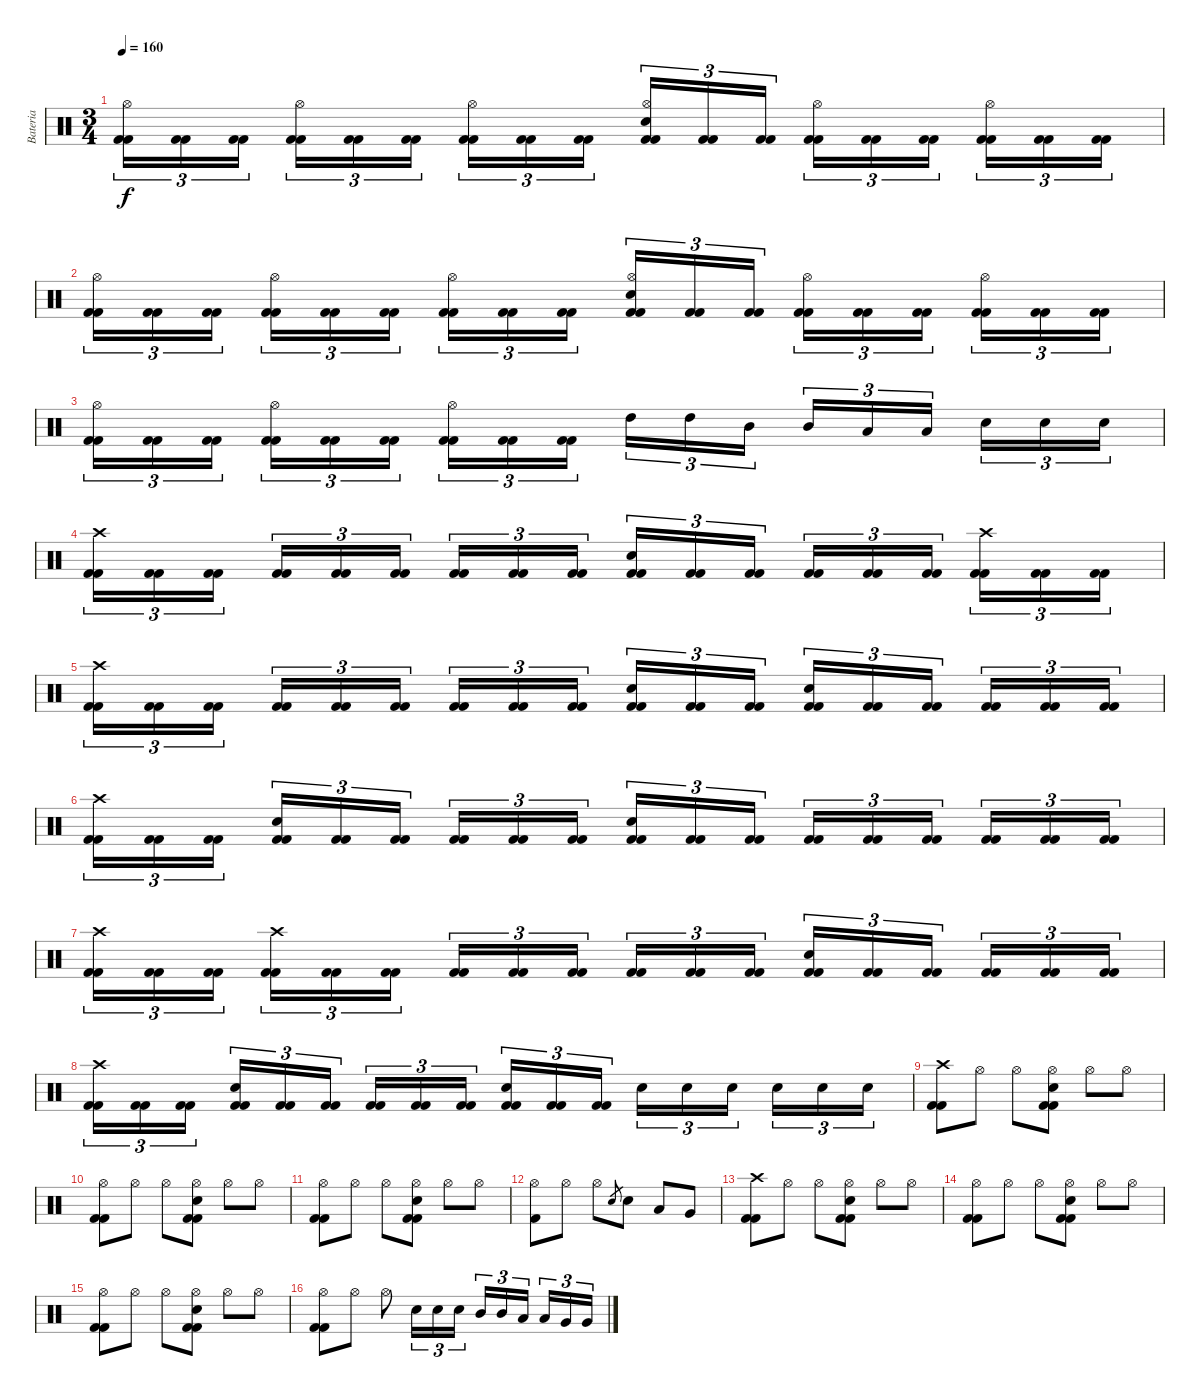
\track ("Bateria" "Bateria") {instrument percussion}
\staff {score}
\articulation defaults
\ts (3 4)
\tempo 160
\clef neutral
\ks c
("Kick (hit) 2" "Kick (hit) 2" "Hi-Hat (open)").16{tu (3 2) dy f} ("Kick (hit) 2" "Kick (hit) 2").16{tu (3 2)} ("Kick (hit) 2" "Kick (hit) 2").16{tu (3 2)} ("Kick (hit) 2" "Kick (hit) 2" "Hi-Hat (open)").16{tu (3 2)} ("Kick (hit) 2" "Kick (hit) 2").16{tu (3 2)} ("Kick (hit) 2" "Kick (hit) 2").16{tu (3 2)} ("Kick (hit) 2" "Kick (hit) 2" "Hi-Hat (open)").16{tu (3 2)} ("Kick (hit) 2" "Kick (hit) 2").16{tu (3 2)} ("Kick (hit) 2" "Kick (hit) 2").16{tu (3 2)} ("Kick (hit) 2" "Kick (hit) 2" "Snare (hit) 2" "Hi-Hat (open)").16{tu (3 2)} ("Kick (hit) 2" "Kick (hit) 2").16{tu (3 2)} ("Kick (hit) 2" "Kick (hit) 2").16{tu (3 2)} ("Kick (hit) 2" "Kick (hit) 2" "Hi-Hat (open)").16{tu (3 2)} ("Kick (hit) 2" "Kick (hit) 2").16{tu (3 2)} ("Kick (hit) 2" "Kick (hit) 2").16{tu (3 2)} ("Kick (hit) 2" "Kick (hit) 2" "Hi-Hat (open)").16{tu (3 2)} ("Kick (hit) 2" "Kick (hit) 2").16{tu (3 2)} ("Kick (hit) 2" "Kick (hit) 2").16{tu (3 2)} |
("Kick (hit) 2" "Kick (hit) 2" "Hi-Hat (open)").16{tu (3 2)} ("Kick (hit) 2" "Kick (hit) 2").16{tu (3 2)} ("Kick (hit) 2" "Kick (hit) 2").16{tu (3 2)} ("Kick (hit) 2" "Kick (hit) 2" "Hi-Hat (open)").16{tu (3 2)} ("Kick (hit) 2" "Kick (hit) 2").16{tu (3 2)} ("Kick (hit) 2" "Kick (hit) 2").16{tu (3 2)} ("Kick (hit) 2" "Kick (hit) 2" "Hi-Hat (open)").16{tu (3 2)} ("Kick (hit) 2" "Kick (hit) 2").16{tu (3 2)} ("Kick (hit) 2" "Kick (hit) 2").16{tu (3 2)} ("Kick (hit) 2" "Kick (hit) 2" "Snare (hit) 2" "Hi-Hat (open)").16{tu (3 2)} ("Kick (hit) 2" "Kick (hit) 2").16{tu (3 2)} ("Kick (hit) 2" "Kick (hit) 2").16{tu (3 2)} ("Kick (hit) 2" "Kick (hit) 2" "Hi-Hat (open)").16{tu (3 2)} ("Kick (hit) 2" "Kick (hit) 2").16{tu (3 2)} ("Kick (hit) 2" "Kick (hit) 2").16{tu (3 2)} ("Kick (hit) 2" "Kick (hit) 2" "Hi-Hat (open)").16{tu (3 2)} ("Kick (hit) 2" "Kick (hit) 2").16{tu (3 2)} ("Kick (hit) 2" "Kick (hit) 2").16{tu (3 2)} |
("Kick (hit) 2" "Kick (hit) 2" "Hi-Hat (open)").16{tu (3 2)} ("Kick (hit) 2" "Kick (hit) 2").16{tu (3 2)} ("Kick (hit) 2" "Kick (hit) 2").16{tu (3 2)} ("Kick (hit) 2" "Kick (hit) 2" "Hi-Hat (open)").16{tu (3 2)} ("Kick (hit) 2" "Kick (hit) 2").16{tu (3 2)} ("Kick (hit) 2" "Kick (hit) 2").16{tu (3 2)} ("Kick (hit) 2" "Kick (hit) 2" "Hi-Hat (open)").16{tu (3 2)} ("Kick (hit) 2" "Kick (hit) 2").16{tu (3 2)} ("Kick (hit) 2" "Kick (hit) 2").16{tu (3 2)} "High Tom (hit)".16{tu (3 2)} "High Tom (hit)".16{tu (3 2)} "Mid Tom (hit)".16{tu (3 2)} "Mid Tom (hit)".16{tu (3 2)} "Low Tom (hit)".16{tu (3 2)} "Low Tom (hit)".16{tu (3 2)} "Snare (hit) 2".16{tu (3 2)} "Snare (hit) 2".16{tu (3 2)} "Snare (hit) 2".16{tu (3 2)} |
("Kick (hit) 2" "Kick (hit) 2" "Crash high (hit)").16{tu (3 2)} ("Kick (hit) 2" "Kick (hit) 2").16{tu (3 2)} ("Kick (hit) 2" "Kick (hit) 2").16{tu (3 2)} ("Kick (hit) 2" "Kick (hit) 2").16{tu (3 2)} ("Kick (hit) 2" "Kick (hit) 2").16{tu (3 2)} ("Kick (hit) 2" "Kick (hit) 2").16{tu (3 2)} ("Kick (hit) 2" "Kick (hit) 2").16{tu (3 2)} ("Kick (hit) 2" "Kick (hit) 2").16{tu (3 2)} ("Kick (hit) 2" "Kick (hit) 2").16{tu (3 2)} ("Kick (hit) 2" "Kick (hit) 2" "Snare (hit) 2").16{tu (3 2)} ("Kick (hit) 2" "Kick (hit) 2").16{tu (3 2)} ("Kick (hit) 2" "Kick (hit) 2").16{tu (3 2)} ("Kick (hit) 2" "Kick (hit) 2").16{tu (3 2)} ("Kick (hit) 2" "Kick (hit) 2").16{tu (3 2)} ("Kick (hit) 2" "Kick (hit) 2").16{tu (3 2)} ("Kick (hit) 2" "Kick (hit) 2" "Crash high (hit)").16{tu (3 2)} ("Kick (hit) 2" "Kick (hit) 2").16{tu (3 2)} ("Kick (hit) 2" "Kick (hit) 2").16{tu (3 2)} |
("Kick (hit) 2" "Kick (hit) 2" "Crash high (hit)").16{tu (3 2)} ("Kick (hit) 2" "Kick (hit) 2").16{tu (3 2)} ("Kick (hit) 2" "Kick (hit) 2").16{tu (3 2)} ("Kick (hit) 2" "Kick (hit) 2").16{tu (3 2)} ("Kick (hit) 2" "Kick (hit) 2").16{tu (3 2)} ("Kick (hit) 2" "Kick (hit) 2").16{tu (3 2)} ("Kick (hit) 2" "Kick (hit) 2").16{tu (3 2)} ("Kick (hit) 2" "Kick (hit) 2").16{tu (3 2)} ("Kick (hit) 2" "Kick (hit) 2").16{tu (3 2)} ("Kick (hit) 2" "Kick (hit) 2" "Snare (hit) 2").16{tu (3 2)} ("Kick (hit) 2" "Kick (hit) 2").16{tu (3 2)} ("Kick (hit) 2" "Kick (hit) 2").16{tu (3 2)} ("Kick (hit) 2" "Kick (hit) 2" "Snare (hit) 2").16{tu (3 2)} ("Kick (hit) 2" "Kick (hit) 2").16{tu (3 2)} ("Kick (hit) 2" "Kick (hit) 2").16{tu (3 2)} ("Kick (hit) 2" "Kick (hit) 2").16{tu (3 2)} ("Kick (hit) 2" "Kick (hit) 2").16{tu (3 2)} ("Kick (hit) 2" "Kick (hit) 2").16{tu (3 2)} |
("Kick (hit) 2" "Kick (hit) 2" "Crash high (hit)").16{tu (3 2)} ("Kick (hit) 2" "Kick (hit) 2").16{tu (3 2)} ("Kick (hit) 2" "Kick (hit) 2").16{tu (3 2)} ("Kick (hit) 2" "Kick (hit) 2" "Snare (hit) 2").16{tu (3 2)} ("Kick (hit) 2" "Kick (hit) 2").16{tu (3 2)} ("Kick (hit) 2" "Kick (hit) 2").16{tu (3 2)} ("Kick (hit) 2" "Kick (hit) 2").16{tu (3 2)} ("Kick (hit) 2" "Kick (hit) 2").16{tu (3 2)} ("Kick (hit) 2" "Kick (hit) 2").16{tu (3 2)} ("Kick (hit) 2" "Kick (hit) 2" "Snare (hit) 2").16{tu (3 2)} ("Kick (hit) 2" "Kick (hit) 2").16{tu (3 2)} ("Kick (hit) 2" "Kick (hit) 2").16{tu (3 2)} ("Kick (hit) 2" "Kick (hit) 2").16{tu (3 2)} ("Kick (hit) 2" "Kick (hit) 2").16{tu (3 2)} ("Kick (hit) 2" "Kick (hit) 2").16{tu (3 2)} ("Kick (hit) 2" "Kick (hit) 2").16{tu (3 2)} ("Kick (hit) 2" "Kick (hit) 2").16{tu (3 2)} ("Kick (hit) 2" "Kick (hit) 2").16{tu (3 2)} |
("Kick (hit) 2" "Kick (hit) 2" "Crash high (hit)").16{tu (3 2)} ("Kick (hit) 2" "Kick (hit) 2").16{tu (3 2)} ("Kick (hit) 2" "Kick (hit) 2").16{tu (3 2)} ("Kick (hit) 2" "Kick (hit) 2" "Crash high (hit)").16{tu (3 2)} ("Kick (hit) 2" "Kick (hit) 2").16{tu (3 2)} ("Kick (hit) 2" "Kick (hit) 2").16{tu (3 2)} ("Kick (hit) 2" "Kick (hit) 2").16{tu (3 2)} ("Kick (hit) 2" "Kick (hit) 2").16{tu (3 2)} ("Kick (hit) 2" "Kick (hit) 2").16{tu (3 2)} ("Kick (hit) 2" "Kick (hit) 2").16{tu (3 2)} ("Kick (hit) 2" "Kick (hit) 2").16{tu (3 2)} ("Kick (hit) 2" "Kick (hit) 2").16{tu (3 2)} ("Kick (hit) 2" "Kick (hit) 2" "Snare (hit) 2").16{tu (3 2)} ("Kick (hit) 2" "Kick (hit) 2").16{tu (3 2)} ("Kick (hit) 2" "Kick (hit) 2").16{tu (3 2)} ("Kick (hit) 2" "Kick (hit) 2").16{tu (3 2)} ("Kick (hit) 2" "Kick (hit) 2").16{tu (3 2)} ("Kick (hit) 2" "Kick (hit) 2").16{tu (3 2)} |
("Kick (hit) 2" "Kick (hit) 2" "Crash high (hit)").16{tu (3 2)} ("Kick (hit) 2" "Kick (hit) 2").16{tu (3 2)} ("Kick (hit) 2" "Kick (hit) 2").16{tu (3 2)} ("Kick (hit) 2" "Kick (hit) 2" "Snare (hit) 2").16{tu (3 2)} ("Kick (hit) 2" "Kick (hit) 2").16{tu (3 2)} ("Kick (hit) 2" "Kick (hit) 2").16{tu (3 2)} ("Kick (hit) 2" "Kick (hit) 2").16{tu (3 2)} ("Kick (hit) 2" "Kick (hit) 2").16{tu (3 2)} ("Kick (hit) 2" "Kick (hit) 2").16{tu (3 2)} ("Kick (hit) 2" "Kick (hit) 2" "Snare (hit) 2").16{tu (3 2)} ("Kick (hit) 2" "Kick (hit) 2").16{tu (3 2)} ("Kick (hit) 2" "Kick (hit) 2").16{tu (3 2)} "Snare (hit) 2".16{tu (3 2)} "Snare (hit) 2".16{tu (3 2)} "Snare (hit) 2".16{tu (3 2)} "Snare (hit) 2".16{tu (3 2)} "Snare (hit) 2".16{tu (3 2)} "Snare (hit) 2".16{tu (3 2)} |
("Crash high (hit)" "Kick (hit) 2" "Kick (hit) 2").8 "Hi-Hat (open)".8 "Hi-Hat (open)".8 ("Kick (hit) 2" "Kick (hit) 2" "Snare (hit) 2" "Hi-Hat (open)").8 "Hi-Hat (open)".8 "Hi-Hat (open)".8 |
("Hi-Hat (open)" "Kick (hit) 2" "Kick (hit) 2").8 "Hi-Hat (open)".8 "Hi-Hat (open)".8 ("Kick (hit) 2" "Kick (hit) 2" "Snare (hit) 2" "Hi-Hat (open)").8 "Hi-Hat (open)".8 "Hi-Hat (open)".8 |
("Hi-Hat (open)" "Kick (hit) 2" "Kick (hit) 2").8 "Hi-Hat (open)".8 "Hi-Hat (open)".8 ("Kick (hit) 2" "Kick (hit) 2" "Snare (hit) 2" "Hi-Hat (open)").8 "Hi-Hat (open)".8 "Hi-Hat (open)".8 |
("Hi-Hat (open)" "Kick (hit) 2").8 "Hi-Hat (open)".8 "Hi-Hat (open)".8 "Snare (hit) 2".8{gr} "Snare (hit) 2".8 "Low Tom (hit)".8 "Very Low Tom (hit)".8 |
("Crash high (hit)" "Kick (hit) 2" "Kick (hit) 2").8 "Hi-Hat (open)".8 "Hi-Hat (open)".8 ("Kick (hit) 2" "Kick (hit) 2" "Snare (hit) 2" "Hi-Hat (open)").8 "Hi-Hat (open)".8 "Hi-Hat (open)".8 |
("Hi-Hat (open)" "Kick (hit) 2" "Kick (hit) 2").8 "Hi-Hat (open)".8 "Hi-Hat (open)".8 ("Kick (hit) 2" "Kick (hit) 2" "Snare (hit) 2" "Hi-Hat (open)").8 "Hi-Hat (open)".8 "Hi-Hat (open)".8 |
("Hi-Hat (open)" "Kick (hit) 2" "Kick (hit) 2").8 "Hi-Hat (open)".8 "Hi-Hat (open)".8 ("Kick (hit) 2" "Kick (hit) 2" "Snare (hit) 2" "Hi-Hat (open)").8 "Hi-Hat (open)".8 "Hi-Hat (open)".8 |
("Hi-Hat (open)" "Kick (hit) 2" "Kick (hit) 2").8 "Hi-Hat (open)".8 "Hi-Hat (open)".8 "Snare (hit) 2".16{tu (3 2)} "Snare (hit) 2".16{tu (3 2)} "Snare (hit) 2".16{tu (3 2)} "Mid Tom (hit)".16{tu (3 2)} "Mid Tom (hit)".16{tu (3 2)} "Low Tom (hit)".16{tu (3 2)} "Low Tom (hit)".16{tu (3 2)} "Very Low Tom (hit)".16{tu (3 2)} "Very Low Tom (hit)".16{tu (3 2)}
